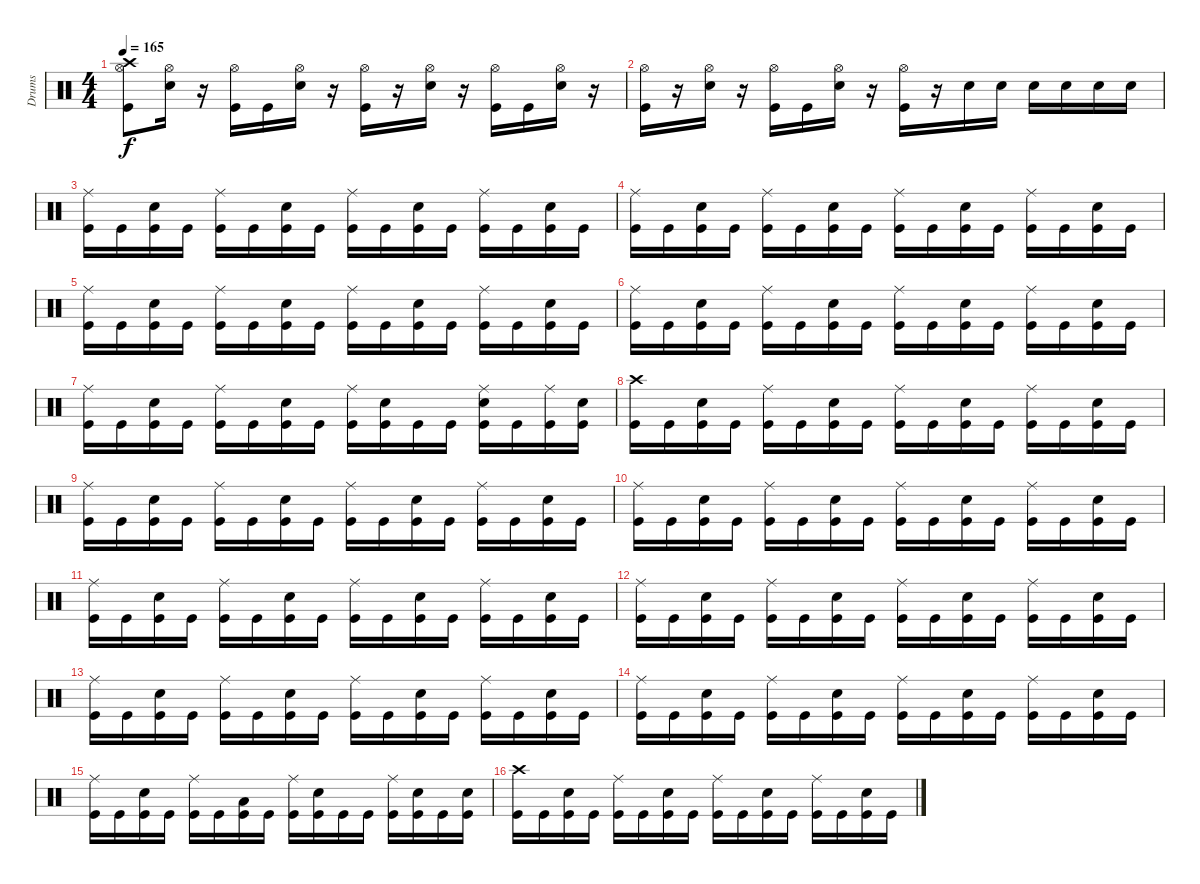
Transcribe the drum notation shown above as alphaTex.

\track ("Drums" "Drums") {instrument percussion}
\staff {score}
\articulation defaults
\ts (4 4)
\tempo 165
\clef neutral
\ks c
("Crash high (hit)" "Hi-Hat (open)" "Kick (hit)").8{dy f} ("Electric Snare (hit)" "Hi-Hat (open)").16 r.16 ("Kick (hit)" "Hi-Hat (open)").16 "Kick (hit)".16 ("Electric Snare (hit)" "Hi-Hat (open)").16 r.16 ("Kick (hit)" "Hi-Hat (open)").16 r.16 ("Electric Snare (hit)" "Hi-Hat (open)").16 r.16 ("Kick (hit)" "Hi-Hat (open)").16 "Kick (hit)".16 ("Electric Snare (hit)" "Hi-Hat (open)").16 r.16 |
("Hi-Hat (open)" "Kick (hit)").16 r.16 ("Electric Snare (hit)" "Hi-Hat (open)").16 r.16 ("Kick (hit)" "Hi-Hat (open)").16 "Kick (hit)".16 ("Electric Snare (hit)" "Hi-Hat (open)").16 r.16 ("Kick (hit)" "Hi-Hat (open)").16 r.16 "Electric Snare (hit)".16 "Electric Snare (hit)".16 "Electric Snare (hit)".16 "Electric Snare (hit)".16 "Electric Snare (hit)".16 "Electric Snare (hit)".16 |
("Ride (middle)" "Kick (hit)").16 "Kick (hit)".16 ("Electric Snare (hit)" "Kick (hit)").16 "Kick (hit)".16 ("Ride (middle)" "Kick (hit)").16 "Kick (hit)".16 ("Electric Snare (hit)" "Kick (hit)").16 "Kick (hit)".16 ("Ride (middle)" "Kick (hit)").16 "Kick (hit)".16 ("Electric Snare (hit)" "Kick (hit)").16 "Kick (hit)".16 ("Ride (middle)" "Kick (hit)").16 "Kick (hit)".16 ("Electric Snare (hit)" "Kick (hit)").16 "Kick (hit)".16 |
("Ride (middle)" "Kick (hit)").16 "Kick (hit)".16 ("Electric Snare (hit)" "Kick (hit)").16 "Kick (hit)".16 ("Ride (middle)" "Kick (hit)").16 "Kick (hit)".16 ("Electric Snare (hit)" "Kick (hit)").16 "Kick (hit)".16 ("Ride (middle)" "Kick (hit)").16 "Kick (hit)".16 ("Electric Snare (hit)" "Kick (hit)").16 "Kick (hit)".16 ("Ride (middle)" "Kick (hit)").16 "Kick (hit)".16 ("Electric Snare (hit)" "Kick (hit)").16 "Kick (hit)".16 |
("Ride (middle)" "Kick (hit)").16 "Kick (hit)".16 ("Electric Snare (hit)" "Kick (hit)").16 "Kick (hit)".16 ("Ride (middle)" "Kick (hit)").16 "Kick (hit)".16 ("Electric Snare (hit)" "Kick (hit)").16 "Kick (hit)".16 ("Ride (middle)" "Kick (hit)").16 "Kick (hit)".16 ("Electric Snare (hit)" "Kick (hit)").16 "Kick (hit)".16 ("Ride (middle)" "Kick (hit)").16 "Kick (hit)".16 ("Electric Snare (hit)" "Kick (hit)").16 "Kick (hit)".16 |
("Ride (middle)" "Kick (hit)").16 "Kick (hit)".16 ("Electric Snare (hit)" "Kick (hit)").16 "Kick (hit)".16 ("Ride (middle)" "Kick (hit)").16 "Kick (hit)".16 ("Electric Snare (hit)" "Kick (hit)").16 "Kick (hit)".16 ("Ride (middle)" "Kick (hit)").16 "Kick (hit)".16 ("Electric Snare (hit)" "Kick (hit)").16 "Kick (hit)".16 ("Ride (middle)" "Kick (hit)").16 "Kick (hit)".16 ("Electric Snare (hit)" "Kick (hit)").16 "Kick (hit)".16 |
("Ride (middle)" "Kick (hit)").16 "Kick (hit)".16 ("Electric Snare (hit)" "Kick (hit)").16 "Kick (hit)".16 ("Ride (middle)" "Kick (hit)").16 "Kick (hit)".16 ("Electric Snare (hit)" "Kick (hit)").16 "Kick (hit)".16 ("Ride (middle)" "Kick (hit)").16 ("Electric Snare (hit)" "Kick (hit)").16 "Kick (hit)".16 "Kick (hit)".16 ("Ride (middle)" "Electric Snare (hit)" "Kick (hit)").16 "Kick (hit)".16 ("Ride (middle)" "Kick (hit)").16 ("Electric Snare (hit)" "Kick (hit)").16 |
("Kick (hit)" "Crash high (hit)").16{volume 14 balance 8} "Kick (hit)".16 ("Electric Snare (hit)" "Kick (hit)").16 "Kick (hit)".16 ("Ride (middle)" "Kick (hit)").16 "Kick (hit)".16 ("Electric Snare (hit)" "Kick (hit)").16 "Kick (hit)".16 ("Ride (middle)" "Kick (hit)").16 "Kick (hit)".16 ("Electric Snare (hit)" "Kick (hit)").16 "Kick (hit)".16 ("Ride (middle)" "Kick (hit)").16 "Kick (hit)".16 ("Electric Snare (hit)" "Kick (hit)").16 "Kick (hit)".16 |
("Ride (middle)" "Kick (hit)").16 "Kick (hit)".16 ("Electric Snare (hit)" "Kick (hit)").16 "Kick (hit)".16 ("Ride (middle)" "Kick (hit)").16 "Kick (hit)".16 ("Electric Snare (hit)" "Kick (hit)").16 "Kick (hit)".16 ("Ride (middle)" "Kick (hit)").16 "Kick (hit)".16 ("Electric Snare (hit)" "Kick (hit)").16 "Kick (hit)".16 ("Ride (middle)" "Kick (hit)").16 "Kick (hit)".16 ("Electric Snare (hit)" "Kick (hit)").16 "Kick (hit)".16 |
("Ride (middle)" "Kick (hit)").16 "Kick (hit)".16 ("Electric Snare (hit)" "Kick (hit)").16 "Kick (hit)".16 ("Ride (middle)" "Kick (hit)").16 "Kick (hit)".16 ("Electric Snare (hit)" "Kick (hit)").16 "Kick (hit)".16 ("Ride (middle)" "Kick (hit)").16 "Kick (hit)".16 ("Electric Snare (hit)" "Kick (hit)").16 "Kick (hit)".16 ("Ride (middle)" "Kick (hit)").16 "Kick (hit)".16 ("Electric Snare (hit)" "Kick (hit)").16 "Kick (hit)".16 |
("Ride (middle)" "Kick (hit)").16 "Kick (hit)".16 ("Electric Snare (hit)" "Kick (hit)").16 "Kick (hit)".16 ("Ride (middle)" "Kick (hit)").16 "Kick (hit)".16 ("Electric Snare (hit)" "Kick (hit)").16 "Kick (hit)".16 ("Ride (middle)" "Kick (hit)").16 "Kick (hit)".16 ("Electric Snare (hit)" "Kick (hit)").16 "Kick (hit)".16 ("Ride (middle)" "Kick (hit)").16 "Kick (hit)".16 ("Electric Snare (hit)" "Kick (hit)").16 "Kick (hit)".16 |
("Ride (middle)" "Kick (hit)").16 "Kick (hit)".16 ("Electric Snare (hit)" "Kick (hit)").16 "Kick (hit)".16 ("Ride (middle)" "Kick (hit)").16 "Kick (hit)".16 ("Electric Snare (hit)" "Kick (hit)").16 "Kick (hit)".16 ("Ride (middle)" "Kick (hit)").16 "Kick (hit)".16 ("Electric Snare (hit)" "Kick (hit)").16 "Kick (hit)".16 ("Ride (middle)" "Kick (hit)").16 "Kick (hit)".16 ("Electric Snare (hit)" "Kick (hit)").16 "Kick (hit)".16 |
("Ride (middle)" "Kick (hit)").16 "Kick (hit)".16 ("Electric Snare (hit)" "Kick (hit)").16 "Kick (hit)".16 ("Ride (middle)" "Kick (hit)").16 "Kick (hit)".16 ("Electric Snare (hit)" "Kick (hit)").16 "Kick (hit)".16 ("Ride (middle)" "Kick (hit)").16 "Kick (hit)".16 ("Electric Snare (hit)" "Kick (hit)").16 "Kick (hit)".16 ("Ride (middle)" "Kick (hit)").16 "Kick (hit)".16 ("Electric Snare (hit)" "Kick (hit)").16 "Kick (hit)".16 |
("Ride (middle)" "Kick (hit)").16 "Kick (hit)".16 ("Electric Snare (hit)" "Kick (hit)").16 "Kick (hit)".16 ("Ride (middle)" "Kick (hit)").16 "Kick (hit)".16 ("Electric Snare (hit)" "Kick (hit)").16 "Kick (hit)".16 ("Ride (middle)" "Kick (hit)").16 "Kick (hit)".16 ("Electric Snare (hit)" "Kick (hit)").16 "Kick (hit)".16 ("Ride (middle)" "Kick (hit)").16 "Kick (hit)".16 ("Electric Snare (hit)" "Kick (hit)").16 "Kick (hit)".16 |
("Ride (middle)" "Kick (hit)").16 "Kick (hit)".16 ("Electric Snare (hit)" "Kick (hit)").16 "Kick (hit)".16 ("Ride (middle)" "Kick (hit)").16 "Kick (hit)".16 ("Low Tom (hit)" "Kick (hit)").16 "Kick (hit)".16 ("Ride (middle)" "Kick (hit)").16 ("Electric Snare (hit)" "Kick (hit)").16 "Kick (hit)".16 "Kick (hit)".16 ("Ride (middle)" "Kick (hit)").16 ("Electric Snare (hit)" "Kick (hit)").16 "Kick (hit)".16 ("Electric Snare (hit)" "Kick (hit)").16 |
("Kick (hit)" "Crash high (hit)").16 "Kick (hit)".16 ("Electric Snare (hit)" "Kick (hit)").16 "Kick (hit)".16 ("Ride (middle)" "Kick (hit)").16 "Kick (hit)".16 ("Electric Snare (hit)" "Kick (hit)").16 "Kick (hit)".16 ("Ride (middle)" "Kick (hit)").16 "Kick (hit)".16 ("Electric Snare (hit)" "Kick (hit)").16 "Kick (hit)".16 ("Ride (middle)" "Kick (hit)").16 "Kick (hit)".16 ("Electric Snare (hit)" "Kick (hit)").16 "Kick (hit)".16
